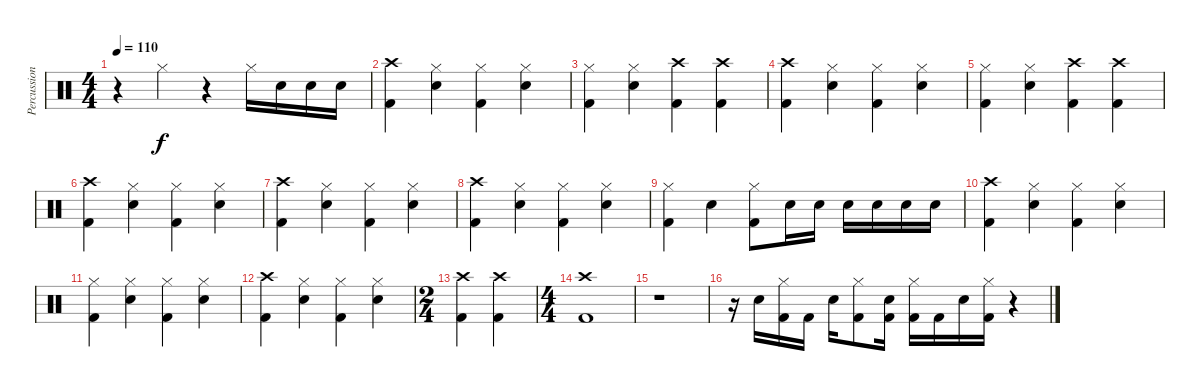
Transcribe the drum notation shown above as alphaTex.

\track ("Percussion" "Percussion") {instrument percussion}
\staff {score}
\articulation defaults
\ts (4 4)
\tempo 110
\clef neutral
\ks c
r.4{dy f} "Hi-Hat (closed)".4 r.4 "Hi-Hat (closed)".16 "Snare (hit) 2".16 "Snare (hit) 2".16 "Snare (hit) 2".16 |
("Crash high (hit)" "Kick (hit) 2").4 ("Hi-Hat (closed)" "Snare (hit) 2").4 ("Hi-Hat (closed)" "Kick (hit) 2").4 ("Hi-Hat (closed)" "Snare (hit) 2").4 |
("Hi-Hat (closed)" "Kick (hit) 2").4 ("Hi-Hat (closed)" "Snare (hit) 2").4 ("Crash high (hit)" "Kick (hit) 2").4 ("Crash high (hit)" "Kick (hit) 2").4 |
("Crash high (hit)" "Kick (hit) 2").4 ("Hi-Hat (closed)" "Snare (hit) 2").4 ("Hi-Hat (closed)" "Kick (hit) 2").4 ("Hi-Hat (closed)" "Snare (hit) 2").4 |
("Hi-Hat (closed)" "Kick (hit) 2").4 ("Hi-Hat (closed)" "Snare (hit) 2").4 ("Crash high (hit)" "Kick (hit) 2").4 ("Crash high (hit)" "Kick (hit) 2").4 |
("Crash high (hit)" "Kick (hit) 2").4 ("Hi-Hat (closed)" "Snare (hit) 2").4 ("Hi-Hat (closed)" "Kick (hit) 2").4 ("Hi-Hat (closed)" "Snare (hit) 2").4 |
("Crash high (hit)" "Kick (hit) 2").4 ("Hi-Hat (closed)" "Snare (hit) 2").4 ("Hi-Hat (closed)" "Kick (hit) 2").4 ("Hi-Hat (closed)" "Snare (hit) 2").4 |
("Crash high (hit)" "Kick (hit) 2").4 ("Hi-Hat (closed)" "Snare (hit) 2").4 ("Hi-Hat (closed)" "Kick (hit) 2").4 ("Hi-Hat (closed)" "Snare (hit) 2").4 |
("Hi-Hat (closed)" "Kick (hit) 2").4 "Snare (hit) 2".4 ("Hi-Hat (closed)" "Kick (hit) 2").8 "Snare (hit) 2".16 "Snare (hit) 2".16 "Snare (hit) 2".16 "Snare (hit) 2".16 "Snare (hit) 2".16 "Snare (hit) 2".16 |
("Crash high (hit)" "Kick (hit) 2").4 ("Hi-Hat (closed)" "Snare (hit) 2").4 ("Hi-Hat (closed)" "Kick (hit) 2").4 ("Hi-Hat (closed)" "Snare (hit) 2").4 |
("Hi-Hat (closed)" "Kick (hit) 2").4 ("Hi-Hat (closed)" "Snare (hit) 2").4 ("Hi-Hat (closed)" "Kick (hit) 2").4 ("Hi-Hat (closed)" "Snare (hit) 2").4 |
("Crash high (hit)" "Kick (hit) 2").4 ("Hi-Hat (closed)" "Snare (hit) 2").4 ("Hi-Hat (closed)" "Kick (hit) 2").4 ("Hi-Hat (closed)" "Snare (hit) 2").4 |
\ts (2 4)
("Crash high (hit)" "Kick (hit) 2").4 ("Crash high (hit)" "Kick (hit) 2").4 |
\ts (4 4)
("Crash high (hit)" "Kick (hit) 2").1 |
r.1 |
r.16 "Snare (hit) 2".16 ("Hi-Hat (closed)" "Kick (hit) 2").16 "Kick (hit) 2".16 "Snare (hit) 2".16 ("Hi-Hat (closed)" "Kick (hit) 2").8 ("Snare (hit) 2" "Kick (hit) 2").16 ("Hi-Hat (closed)" "Kick (hit) 2").16 "Kick (hit) 2".16 "Snare (hit) 2".16 ("Hi-Hat (closed)" "Kick (hit) 2").16 r.4
